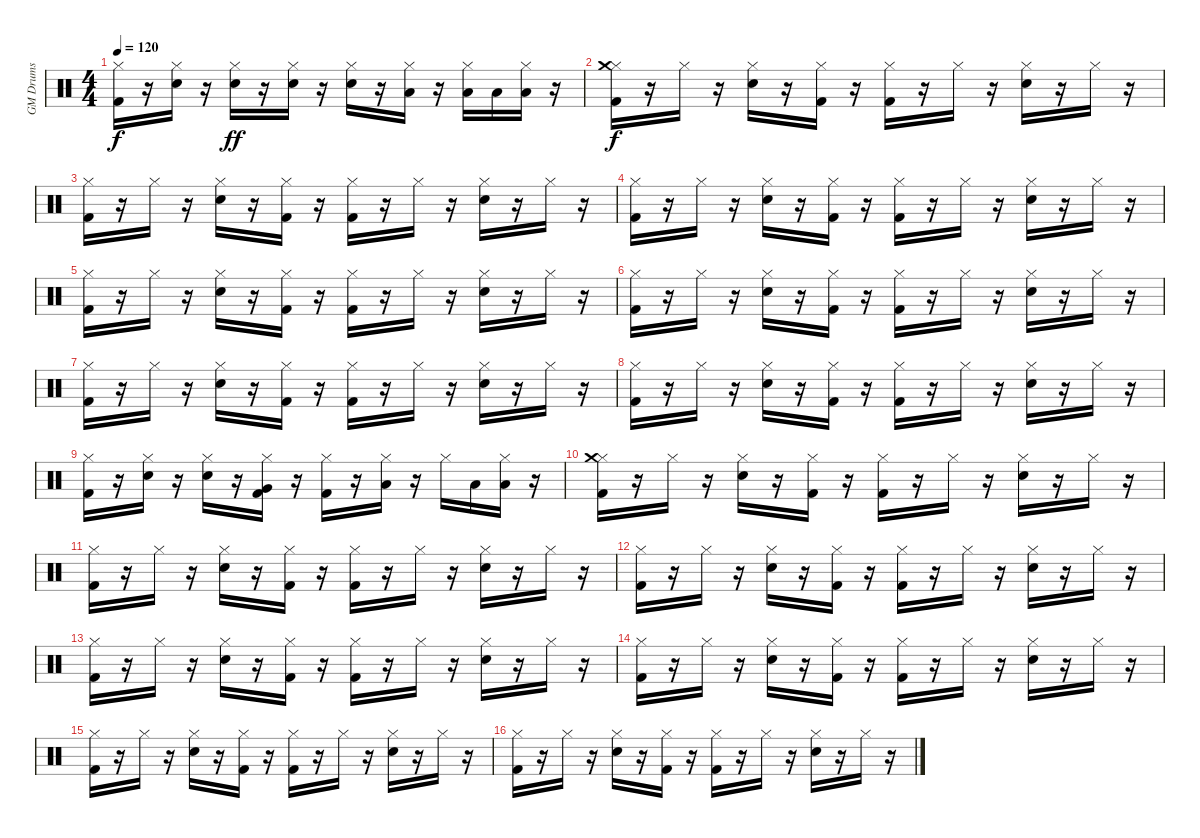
\track ("GM Drums" "GM Drums") {instrument percussion}
\staff {score}
\articulation defaults
\ts (4 4)
\tempo 120
\clef neutral
\ks c
("Kick (hit) 2" "Hi-Hat (closed)").16{dy f} r.16 ("Snare (hit) 2" "Hi-Hat (closed)").16 r.16 ("Snare (hit) 2" "Hi-Hat (closed)").16{dy ff} r.16 ("Snare (hit) 2" "Hi-Hat (closed)").16 r.16 ("Snare (hit) 2" "Hi-Hat (closed)").16 r.16 ("Low Floor Tom (hit)" "Hi-Hat (closed)").16 r.16 ("Hi-Hat (closed)" "Low Tom (hit)").16 "Low Tom (hit)".16 ("Hi-Hat (closed)" "Low Tom (hit)").16 r.16 |
("Kick (hit) 2" "Hi-Hat (closed)" "Crash medium (hit)").16{dy f} r.16 "Hi-Hat (closed)".16 r.16 ("Snare (hit) 2" "Hi-Hat (closed)").16 r.16 ("Kick (hit) 2" "Hi-Hat (closed)").16 r.16 ("Kick (hit) 2" "Hi-Hat (closed)").16 r.16 "Hi-Hat (closed)".16 r.16 ("Snare (hit) 2" "Hi-Hat (closed)").16 r.16 "Hi-Hat (closed)".16 r.16 |
("Kick (hit) 2" "Hi-Hat (closed)").16 r.16 "Hi-Hat (closed)".16 r.16 ("Snare (hit) 2" "Hi-Hat (closed)").16 r.16 ("Kick (hit) 2" "Hi-Hat (closed)").16 r.16 ("Kick (hit) 2" "Hi-Hat (closed)").16 r.16 "Hi-Hat (closed)".16 r.16 ("Snare (hit) 2" "Hi-Hat (closed)").16 r.16 "Hi-Hat (closed)".16 r.16 |
("Kick (hit) 2" "Hi-Hat (closed)").16 r.16 "Hi-Hat (closed)".16 r.16 ("Snare (hit) 2" "Hi-Hat (closed)").16 r.16 ("Kick (hit) 2" "Hi-Hat (closed)").16 r.16 ("Kick (hit) 2" "Hi-Hat (closed)").16 r.16 "Hi-Hat (closed)".16 r.16 ("Snare (hit) 2" "Hi-Hat (closed)").16 r.16 "Hi-Hat (closed)".16 r.16 |
("Kick (hit) 2" "Hi-Hat (closed)").16 r.16 "Hi-Hat (closed)".16 r.16 ("Snare (hit) 2" "Hi-Hat (closed)").16 r.16 ("Kick (hit) 2" "Hi-Hat (closed)").16 r.16 ("Kick (hit) 2" "Hi-Hat (closed)").16 r.16 "Hi-Hat (closed)".16 r.16 ("Snare (hit) 2" "Hi-Hat (closed)").16 r.16 "Hi-Hat (closed)".16 r.16 |
("Kick (hit) 2" "Hi-Hat (closed)").16 r.16 "Hi-Hat (closed)".16 r.16 ("Snare (hit) 2" "Hi-Hat (closed)").16 r.16 ("Kick (hit) 2" "Hi-Hat (closed)").16 r.16 ("Kick (hit) 2" "Hi-Hat (closed)").16 r.16 "Hi-Hat (closed)".16 r.16 ("Snare (hit) 2" "Hi-Hat (closed)").16 r.16 "Hi-Hat (closed)".16 r.16 |
("Kick (hit) 2" "Hi-Hat (closed)").16 r.16 "Hi-Hat (closed)".16 r.16 ("Snare (hit) 2" "Hi-Hat (closed)").16 r.16 ("Kick (hit) 2" "Hi-Hat (closed)").16 r.16 ("Kick (hit) 2" "Hi-Hat (closed)").16 r.16 "Hi-Hat (closed)".16 r.16 ("Snare (hit) 2" "Hi-Hat (closed)").16 r.16 "Hi-Hat (closed)".16 r.16 |
("Kick (hit) 2" "Hi-Hat (closed)").16 r.16 "Hi-Hat (closed)".16 r.16 ("Snare (hit) 2" "Hi-Hat (closed)").16 r.16 ("Kick (hit) 2" "Hi-Hat (closed)").16 r.16 ("Kick (hit) 2" "Hi-Hat (closed)").16 r.16 "Hi-Hat (closed)".16 r.16 ("Snare (hit) 2" "Hi-Hat (closed)").16 r.16 "Hi-Hat (closed)".16 r.16 |
("Kick (hit) 2" "Hi-Hat (closed)").16 r.16 ("Snare (hit) 2" "Hi-Hat (closed)").16 r.16 ("Snare (hit) 2" "Hi-Hat (closed)").16 r.16 ("Kick (hit) 2" "Hi-Hat (closed)" "Very Low Tom (hit)").16 r.16 ("Kick (hit) 2" "Hi-Hat (closed)").16 r.16 ("Low Floor Tom (hit)" "Hi-Hat (closed)").16 r.16 "Hi-Hat (closed)".16 "Low Tom (hit)".16 ("Hi-Hat (closed)" "Low Tom (hit)").16 r.16 |
("Kick (hit) 2" "Hi-Hat (closed)" "Crash medium (hit)").16 r.16 "Hi-Hat (closed)".16 r.16 ("Snare (hit) 2" "Hi-Hat (closed)").16 r.16 ("Kick (hit) 2" "Hi-Hat (closed)").16 r.16 ("Kick (hit) 2" "Hi-Hat (closed)").16 r.16 "Hi-Hat (closed)".16 r.16 ("Snare (hit) 2" "Hi-Hat (closed)").16 r.16 "Hi-Hat (closed)".16 r.16 |
("Kick (hit) 2" "Hi-Hat (closed)").16 r.16 "Hi-Hat (closed)".16 r.16 ("Snare (hit) 2" "Hi-Hat (closed)").16 r.16 ("Kick (hit) 2" "Hi-Hat (closed)").16 r.16 ("Kick (hit) 2" "Hi-Hat (closed)").16 r.16 "Hi-Hat (closed)".16 r.16 ("Snare (hit) 2" "Hi-Hat (closed)").16 r.16 "Hi-Hat (closed)".16 r.16 |
("Kick (hit) 2" "Hi-Hat (closed)").16 r.16 "Hi-Hat (closed)".16 r.16 ("Snare (hit) 2" "Hi-Hat (closed)").16 r.16 ("Kick (hit) 2" "Hi-Hat (closed)").16 r.16 ("Kick (hit) 2" "Hi-Hat (closed)").16 r.16 "Hi-Hat (closed)".16 r.16 ("Snare (hit) 2" "Hi-Hat (closed)").16 r.16 "Hi-Hat (closed)".16 r.16 |
("Kick (hit) 2" "Hi-Hat (closed)").16 r.16 "Hi-Hat (closed)".16 r.16 ("Snare (hit) 2" "Hi-Hat (closed)").16 r.16 ("Kick (hit) 2" "Hi-Hat (closed)").16 r.16 ("Kick (hit) 2" "Hi-Hat (closed)").16 r.16 "Hi-Hat (closed)".16 r.16 ("Snare (hit) 2" "Hi-Hat (closed)").16 r.16 "Hi-Hat (closed)".16 r.16 |
("Kick (hit) 2" "Hi-Hat (closed)").16 r.16 "Hi-Hat (closed)".16 r.16 ("Snare (hit) 2" "Hi-Hat (closed)").16 r.16 ("Kick (hit) 2" "Hi-Hat (closed)").16 r.16 ("Kick (hit) 2" "Hi-Hat (closed)").16 r.16 "Hi-Hat (closed)".16 r.16 ("Snare (hit) 2" "Hi-Hat (closed)").16 r.16 "Hi-Hat (closed)".16 r.16 |
("Kick (hit) 2" "Hi-Hat (closed)").16 r.16 "Hi-Hat (closed)".16 r.16 ("Snare (hit) 2" "Hi-Hat (closed)").16 r.16 ("Kick (hit) 2" "Hi-Hat (closed)").16 r.16 ("Kick (hit) 2" "Hi-Hat (closed)").16 r.16 "Hi-Hat (closed)".16 r.16 ("Snare (hit) 2" "Hi-Hat (closed)").16 r.16 "Hi-Hat (closed)".16 r.16 |
("Kick (hit) 2" "Hi-Hat (closed)").16 r.16 "Hi-Hat (closed)".16 r.16 ("Snare (hit) 2" "Hi-Hat (closed)").16 r.16 ("Kick (hit) 2" "Hi-Hat (closed)").16 r.16 ("Kick (hit) 2" "Hi-Hat (closed)").16 r.16 "Hi-Hat (closed)".16 r.16 ("Snare (hit) 2" "Hi-Hat (closed)").16 r.16 "Hi-Hat (closed)".16 r.16
